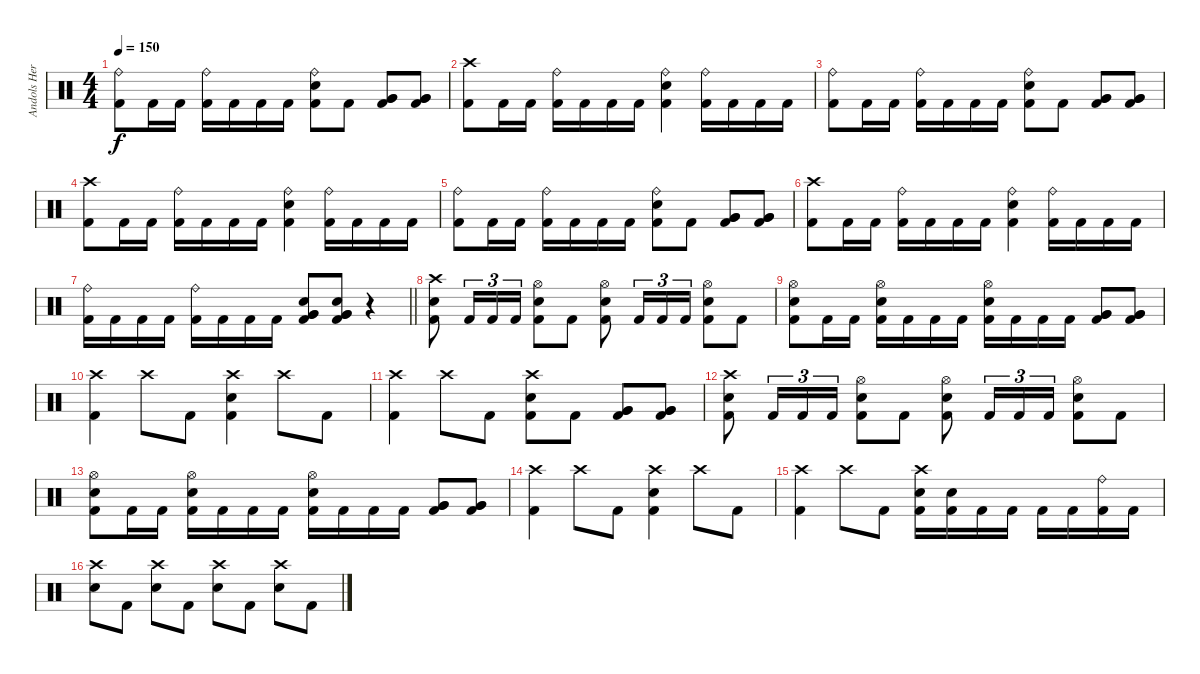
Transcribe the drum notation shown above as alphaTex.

\track ("Andols Herrick" "Andols Her") {instrument percussion}
\staff {score}
\articulation defaults
\ts (4 4)
\tempo 150
\clef neutral
\ks c
("Ride (bell)" "Kick (hit) 2").8{dy f} "Kick (hit) 2".16 "Kick (hit) 2".16 ("Ride (bell)" "Kick (hit) 2").16 "Kick (hit) 2".16 "Kick (hit) 2".16 "Kick (hit) 2".16 ("Ride (bell)" "Electric Snare (hit)" "Kick (hit) 2").8 "Kick (hit) 2".8 ("Very Low Tom (hit)" "Very Low Tom (hit)" "Kick (hit) 2").8 ("Very Low Tom (hit)" "Very Low Tom (hit)" "Kick (hit) 2").8 |
("Crash high (hit)" "Kick (hit) 2").8 "Kick (hit) 2".16 "Kick (hit) 2".16 ("Ride (bell)" "Kick (hit) 2").16 "Kick (hit) 2".16 "Kick (hit) 2".16 "Kick (hit) 2".16 ("Ride (bell)" "Electric Snare (hit)" "Kick (hit) 2").4 ("Ride (bell)" "Kick (hit) 2").16 "Kick (hit) 2".16 "Kick (hit) 2".16 "Kick (hit) 2".16 |
("Ride (bell)" "Kick (hit) 2").8 "Kick (hit) 2".16 "Kick (hit) 2".16 ("Ride (bell)" "Kick (hit) 2").16 "Kick (hit) 2".16 "Kick (hit) 2".16 "Kick (hit) 2".16 ("Ride (bell)" "Electric Snare (hit)" "Kick (hit) 2").8 "Kick (hit) 2".8 ("Very Low Tom (hit)" "Very Low Tom (hit)" "Kick (hit) 2").8 ("Very Low Tom (hit)" "Very Low Tom (hit)" "Kick (hit) 2").8 |
("Crash high (hit)" "Kick (hit) 2").8 "Kick (hit) 2".16 "Kick (hit) 2".16 ("Ride (bell)" "Kick (hit) 2").16 "Kick (hit) 2".16 "Kick (hit) 2".16 "Kick (hit) 2".16 ("Ride (bell)" "Electric Snare (hit)" "Kick (hit) 2").4 ("Ride (bell)" "Kick (hit) 2").16 "Kick (hit) 2".16 "Kick (hit) 2".16 "Kick (hit) 2".16 |
("Ride (bell)" "Kick (hit) 2").8 "Kick (hit) 2".16 "Kick (hit) 2".16 ("Ride (bell)" "Kick (hit) 2").16 "Kick (hit) 2".16 "Kick (hit) 2".16 "Kick (hit) 2".16 ("Ride (bell)" "Electric Snare (hit)" "Kick (hit) 2").8 "Kick (hit) 2".8 ("Very Low Tom (hit)" "Very Low Tom (hit)" "Kick (hit) 2").8 ("Very Low Tom (hit)" "Very Low Tom (hit)" "Kick (hit) 2").8 |
("Crash high (hit)" "Kick (hit) 2").8 "Kick (hit) 2".16 "Kick (hit) 2".16 ("Ride (bell)" "Kick (hit) 2").16 "Kick (hit) 2".16 "Kick (hit) 2".16 "Kick (hit) 2".16 ("Ride (bell)" "Electric Snare (hit)" "Kick (hit) 2").4 ("Ride (bell)" "Kick (hit) 2").16 "Kick (hit) 2".16 "Kick (hit) 2".16 "Kick (hit) 2".16 |
\barLineRight lightlight
("Ride (bell)" "Kick (hit) 2").16 "Kick (hit) 2".16 "Kick (hit) 2".16 "Kick (hit) 2".16 ("Ride (bell)" "Kick (hit) 2").16 "Kick (hit) 2".16 "Kick (hit) 2".16 "Kick (hit) 2".16 ("Electric Snare (hit)" "Very Low Tom (hit)" "Very Low Tom (hit)" "Kick (hit) 2").8 ("Electric Snare (hit)" "Very Low Tom (hit)" "Very Low Tom (hit)" "Kick (hit) 2").8 r.4 |
("Crash high (hit)" "Electric Snare (hit)" "Kick (hit) 2").8 "Kick (hit) 2".16{tu (3 2)} "Kick (hit) 2".16{tu (3 2)} "Kick (hit) 2".16{tu (3 2)} ("Hi-Hat (open)" "Electric Snare (hit)" "Kick (hit) 2").8 "Kick (hit) 2".8 ("Hi-Hat (open)" "Electric Snare (hit)" "Kick (hit) 2").8 "Kick (hit) 2".16{tu (3 2)} "Kick (hit) 2".16{tu (3 2)} "Kick (hit) 2".16{tu (3 2)} ("Hi-Hat (open)" "Electric Snare (hit)" "Kick (hit) 2").8 "Kick (hit) 2".8 |
("Hi-Hat (open)" "Electric Snare (hit)" "Kick (hit) 2").8 "Kick (hit) 2".16 "Kick (hit) 2".16 ("Hi-Hat (open)" "Electric Snare (hit)" "Kick (hit) 2").16 "Kick (hit) 2".16 "Kick (hit) 2".16 "Kick (hit) 2".16 ("Hi-Hat (open)" "Electric Snare (hit)" "Kick (hit) 2").16 "Kick (hit) 2".16 "Kick (hit) 2".16 "Kick (hit) 2".16 ("Very Low Tom (hit)" "Very Low Tom (hit)" "Kick (hit) 2").8 ("Very Low Tom (hit)" "Very Low Tom (hit)" "Kick (hit) 2").8 |
("Crash high (hit)" "Kick (hit) 2").4 "Crash high (hit)".8 "Kick (hit) 2".8 ("Crash high (hit)" "Electric Snare (hit)" "Kick (hit) 2").4 "Crash high (hit)".8 "Kick (hit) 2".8 |
("Crash high (hit)" "Kick (hit) 2").4 "Crash high (hit)".8 "Kick (hit) 2".8 ("Crash high (hit)" "Electric Snare (hit)" "Kick (hit) 2").8 "Kick (hit) 2".8 ("Very Low Tom (hit)" "Very Low Tom (hit)" "Kick (hit) 2").8 ("Very Low Tom (hit)" "Very Low Tom (hit)" "Kick (hit) 2").8 |
("Crash high (hit)" "Electric Snare (hit)" "Kick (hit) 2").8 "Kick (hit) 2".16{tu (3 2)} "Kick (hit) 2".16{tu (3 2)} "Kick (hit) 2".16{tu (3 2)} ("Hi-Hat (open)" "Electric Snare (hit)" "Kick (hit) 2").8 "Kick (hit) 2".8 ("Hi-Hat (open)" "Electric Snare (hit)" "Kick (hit) 2").8 "Kick (hit) 2".16{tu (3 2)} "Kick (hit) 2".16{tu (3 2)} "Kick (hit) 2".16{tu (3 2)} ("Hi-Hat (open)" "Electric Snare (hit)" "Kick (hit) 2").8 "Kick (hit) 2".8 |
("Hi-Hat (open)" "Electric Snare (hit)" "Kick (hit) 2").8 "Kick (hit) 2".16 "Kick (hit) 2".16 ("Hi-Hat (open)" "Electric Snare (hit)" "Kick (hit) 2").16 "Kick (hit) 2".16 "Kick (hit) 2".16 "Kick (hit) 2".16 ("Hi-Hat (open)" "Electric Snare (hit)" "Kick (hit) 2").16 "Kick (hit) 2".16 "Kick (hit) 2".16 "Kick (hit) 2".16 ("Very Low Tom (hit)" "Very Low Tom (hit)" "Kick (hit) 2").8 ("Very Low Tom (hit)" "Very Low Tom (hit)" "Kick (hit) 2").8 |
("Crash high (hit)" "Kick (hit) 2").4 "Crash high (hit)".8 "Kick (hit) 2".8 ("Crash high (hit)" "Electric Snare (hit)" "Kick (hit) 2").4 "Crash high (hit)".8 "Kick (hit) 2".8 |
("Crash high (hit)" "Kick (hit) 2").4 "Crash high (hit)".8 "Kick (hit) 2".8 ("Crash high (hit)" "Electric Snare (hit)" "Kick (hit) 2").16 ("Electric Snare (hit)" "Kick (hit) 2").16 "Kick (hit) 2".16 "Kick (hit) 2".16 "Kick (hit) 2".16 "Kick (hit) 2".16 ("Ride (bell)" "Kick (hit) 2").16 "Kick (hit) 2".16 |
("Crash high (hit)" "Electric Snare (hit)").8 "Kick (hit) 2".8 ("Crash high (hit)" "Electric Snare (hit)").8 "Kick (hit) 2".8 ("Crash high (hit)" "Electric Snare (hit)").8 "Kick (hit) 2".8 ("Crash high (hit)" "Electric Snare (hit)").8 "Kick (hit) 2".8
